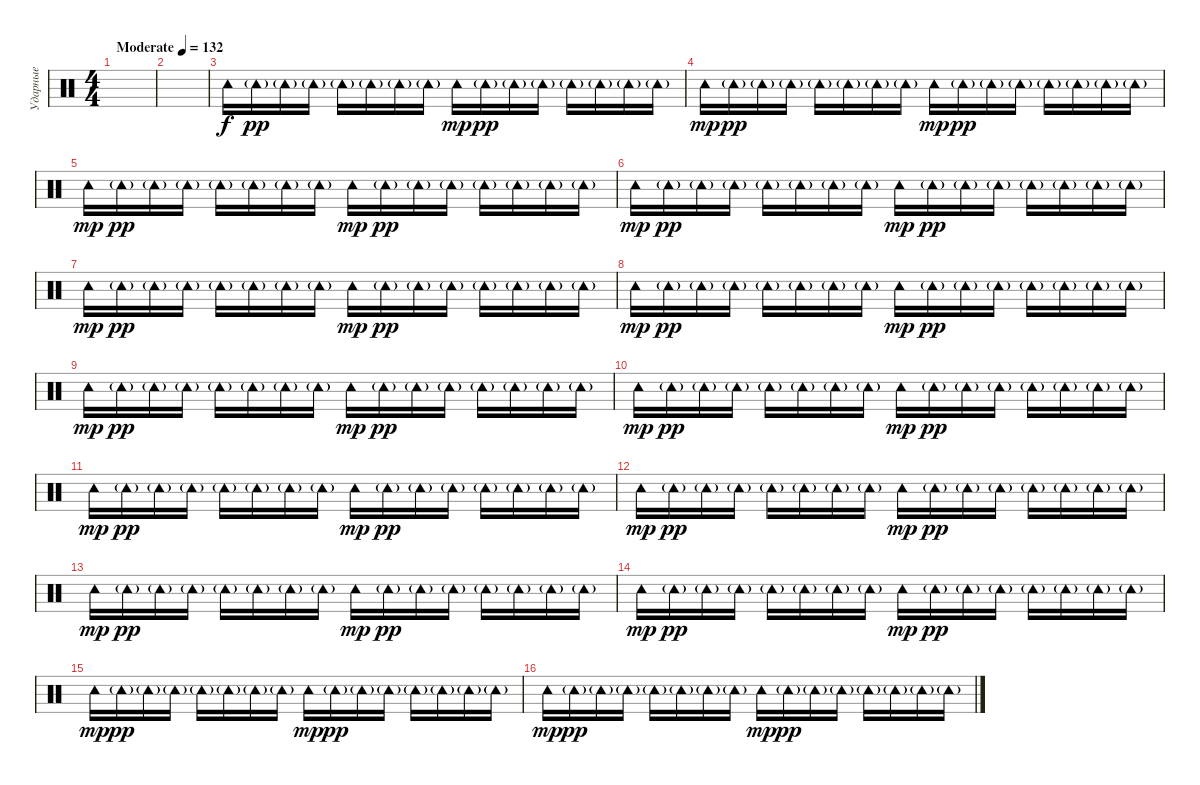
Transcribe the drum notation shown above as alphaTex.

\track ("Ударные" "Ударные") {instrument percussion}
\staff {score}
\articulation defaults
\ts (4 4)
\tempo (132 "Moderate")
\clef neutral
\ks c
|
|
"Tambourine (hit)".16 "Tambourine (hit)"{g}.16{dy pp} "Tambourine (hit)"{g}.16 "Tambourine (hit)"{g}.16 "Tambourine (hit)"{g}.16 "Tambourine (hit)"{g}.16 "Tambourine (hit)"{g}.16 "Tambourine (hit)"{g}.16 "Tambourine (hit)".16{dy mp} "Tambourine (hit)"{g}.16{dy pp} "Tambourine (hit)"{g}.16 "Tambourine (hit)"{g}.16 "Tambourine (hit)"{g}.16 "Tambourine (hit)"{g}.16 "Tambourine (hit)"{g}.16 "Tambourine (hit)"{g}.16 |
"Tambourine (hit)".16{dy mp} "Tambourine (hit)"{g}.16{dy pp} "Tambourine (hit)"{g}.16 "Tambourine (hit)"{g}.16 "Tambourine (hit)"{g}.16 "Tambourine (hit)"{g}.16 "Tambourine (hit)"{g}.16 "Tambourine (hit)"{g}.16 "Tambourine (hit)".16{dy mp} "Tambourine (hit)"{g}.16{dy pp} "Tambourine (hit)"{g}.16 "Tambourine (hit)"{g}.16 "Tambourine (hit)"{g}.16 "Tambourine (hit)"{g}.16 "Tambourine (hit)"{g}.16 "Tambourine (hit)"{g}.16 |
"Tambourine (hit)".16{dy mp} "Tambourine (hit)"{g}.16{dy pp} "Tambourine (hit)"{g}.16 "Tambourine (hit)"{g}.16 "Tambourine (hit)"{g}.16 "Tambourine (hit)"{g}.16 "Tambourine (hit)"{g}.16 "Tambourine (hit)"{g}.16 "Tambourine (hit)".16{dy mp} "Tambourine (hit)"{g}.16{dy pp} "Tambourine (hit)"{g}.16 "Tambourine (hit)"{g}.16 "Tambourine (hit)"{g}.16 "Tambourine (hit)"{g}.16 "Tambourine (hit)"{g}.16 "Tambourine (hit)"{g}.16 |
"Tambourine (hit)".16{dy mp} "Tambourine (hit)"{g}.16{dy pp} "Tambourine (hit)"{g}.16 "Tambourine (hit)"{g}.16 "Tambourine (hit)"{g}.16 "Tambourine (hit)"{g}.16 "Tambourine (hit)"{g}.16 "Tambourine (hit)"{g}.16 "Tambourine (hit)".16{dy mp} "Tambourine (hit)"{g}.16{dy pp} "Tambourine (hit)"{g}.16 "Tambourine (hit)"{g}.16 "Tambourine (hit)"{g}.16 "Tambourine (hit)"{g}.16 "Tambourine (hit)"{g}.16 "Tambourine (hit)"{g}.16 |
"Tambourine (hit)".16{dy mp} "Tambourine (hit)"{g}.16{dy pp} "Tambourine (hit)"{g}.16 "Tambourine (hit)"{g}.16 "Tambourine (hit)"{g}.16 "Tambourine (hit)"{g}.16 "Tambourine (hit)"{g}.16 "Tambourine (hit)"{g}.16 "Tambourine (hit)".16{dy mp} "Tambourine (hit)"{g}.16{dy pp} "Tambourine (hit)"{g}.16 "Tambourine (hit)"{g}.16 "Tambourine (hit)"{g}.16 "Tambourine (hit)"{g}.16 "Tambourine (hit)"{g}.16 "Tambourine (hit)"{g}.16 |
"Tambourine (hit)".16{dy mp} "Tambourine (hit)"{g}.16{dy pp} "Tambourine (hit)"{g}.16 "Tambourine (hit)"{g}.16 "Tambourine (hit)"{g}.16 "Tambourine (hit)"{g}.16 "Tambourine (hit)"{g}.16 "Tambourine (hit)"{g}.16 "Tambourine (hit)".16{dy mp} "Tambourine (hit)"{g}.16{dy pp} "Tambourine (hit)"{g}.16 "Tambourine (hit)"{g}.16 "Tambourine (hit)"{g}.16 "Tambourine (hit)"{g}.16 "Tambourine (hit)"{g}.16 "Tambourine (hit)"{g}.16 |
"Tambourine (hit)".16{dy mp} "Tambourine (hit)"{g}.16{dy pp} "Tambourine (hit)"{g}.16 "Tambourine (hit)"{g}.16 "Tambourine (hit)"{g}.16 "Tambourine (hit)"{g}.16 "Tambourine (hit)"{g}.16 "Tambourine (hit)"{g}.16 "Tambourine (hit)".16{dy mp} "Tambourine (hit)"{g}.16{dy pp} "Tambourine (hit)"{g}.16 "Tambourine (hit)"{g}.16 "Tambourine (hit)"{g}.16 "Tambourine (hit)"{g}.16 "Tambourine (hit)"{g}.16 "Tambourine (hit)"{g}.16 |
"Tambourine (hit)".16{dy mp} "Tambourine (hit)"{g}.16{dy pp} "Tambourine (hit)"{g}.16 "Tambourine (hit)"{g}.16 "Tambourine (hit)"{g}.16 "Tambourine (hit)"{g}.16 "Tambourine (hit)"{g}.16 "Tambourine (hit)"{g}.16 "Tambourine (hit)".16{dy mp} "Tambourine (hit)"{g}.16{dy pp} "Tambourine (hit)"{g}.16 "Tambourine (hit)"{g}.16 "Tambourine (hit)"{g}.16 "Tambourine (hit)"{g}.16 "Tambourine (hit)"{g}.16 "Tambourine (hit)"{g}.16 |
"Tambourine (hit)".16{dy mp} "Tambourine (hit)"{g}.16{dy pp} "Tambourine (hit)"{g}.16 "Tambourine (hit)"{g}.16 "Tambourine (hit)"{g}.16 "Tambourine (hit)"{g}.16 "Tambourine (hit)"{g}.16 "Tambourine (hit)"{g}.16 "Tambourine (hit)".16{dy mp} "Tambourine (hit)"{g}.16{dy pp} "Tambourine (hit)"{g}.16 "Tambourine (hit)"{g}.16 "Tambourine (hit)"{g}.16 "Tambourine (hit)"{g}.16 "Tambourine (hit)"{g}.16 "Tambourine (hit)"{g}.16 |
"Tambourine (hit)".16{dy mp} "Tambourine (hit)"{g}.16{dy pp} "Tambourine (hit)"{g}.16 "Tambourine (hit)"{g}.16 "Tambourine (hit)"{g}.16 "Tambourine (hit)"{g}.16 "Tambourine (hit)"{g}.16 "Tambourine (hit)"{g}.16 "Tambourine (hit)".16{dy mp} "Tambourine (hit)"{g}.16{dy pp} "Tambourine (hit)"{g}.16 "Tambourine (hit)"{g}.16 "Tambourine (hit)"{g}.16 "Tambourine (hit)"{g}.16 "Tambourine (hit)"{g}.16 "Tambourine (hit)"{g}.16 |
"Tambourine (hit)".16{dy mp} "Tambourine (hit)"{g}.16{dy pp} "Tambourine (hit)"{g}.16 "Tambourine (hit)"{g}.16 "Tambourine (hit)"{g}.16 "Tambourine (hit)"{g}.16 "Tambourine (hit)"{g}.16 "Tambourine (hit)"{g}.16 "Tambourine (hit)".16{dy mp} "Tambourine (hit)"{g}.16{dy pp} "Tambourine (hit)"{g}.16 "Tambourine (hit)"{g}.16 "Tambourine (hit)"{g}.16 "Tambourine (hit)"{g}.16 "Tambourine (hit)"{g}.16 "Tambourine (hit)"{g}.16 |
"Tambourine (hit)".16{dy mp} "Tambourine (hit)"{g}.16{dy pp} "Tambourine (hit)"{g}.16 "Tambourine (hit)"{g}.16 "Tambourine (hit)"{g}.16 "Tambourine (hit)"{g}.16 "Tambourine (hit)"{g}.16 "Tambourine (hit)"{g}.16 "Tambourine (hit)".16{dy mp} "Tambourine (hit)"{g}.16{dy pp} "Tambourine (hit)"{g}.16 "Tambourine (hit)"{g}.16 "Tambourine (hit)"{g}.16 "Tambourine (hit)"{g}.16 "Tambourine (hit)"{g}.16 "Tambourine (hit)"{g}.16 |
"Tambourine (hit)".16{dy mp} "Tambourine (hit)"{g}.16{dy pp} "Tambourine (hit)"{g}.16 "Tambourine (hit)"{g}.16 "Tambourine (hit)"{g}.16 "Tambourine (hit)"{g}.16 "Tambourine (hit)"{g}.16 "Tambourine (hit)"{g}.16 "Tambourine (hit)".16{dy mp} "Tambourine (hit)"{g}.16{dy pp} "Tambourine (hit)"{g}.16 "Tambourine (hit)"{g}.16 "Tambourine (hit)"{g}.16 "Tambourine (hit)"{g}.16 "Tambourine (hit)"{g}.16 "Tambourine (hit)"{g}.16 |
"Tambourine (hit)".16{dy mp} "Tambourine (hit)"{g}.16{dy pp} "Tambourine (hit)"{g}.16 "Tambourine (hit)"{g}.16 "Tambourine (hit)"{g}.16 "Tambourine (hit)"{g}.16 "Tambourine (hit)"{g}.16 "Tambourine (hit)"{g}.16 "Tambourine (hit)".16{dy mp} "Tambourine (hit)"{g}.16{dy pp} "Tambourine (hit)"{g}.16 "Tambourine (hit)"{g}.16 "Tambourine (hit)"{g}.16 "Tambourine (hit)"{g}.16 "Tambourine (hit)"{g}.16 "Tambourine (hit)"{g}.16
